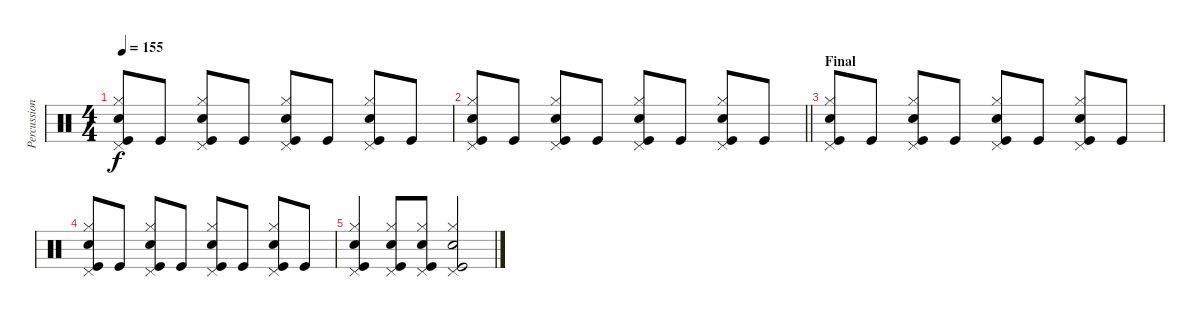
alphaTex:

\track ("Percussions" "Percussion") {instrument percussion}
\staff {score}
\articulation defaults
\ts (4 4)
\tempo 155
\clef neutral
\ks c
("Snare (hit) 2" "Hi-Hat (closed)" "Pedal Hi-Hat (hit)" "Kick (hit)").8{dy f} "Kick (hit)".8 ("Snare (hit) 2" "Hi-Hat (closed)" "Pedal Hi-Hat (hit)" "Kick (hit)").8 "Kick (hit)".8 ("Snare (hit) 2" "Hi-Hat (closed)" "Pedal Hi-Hat (hit)" "Kick (hit)").8 "Kick (hit)".8 ("Snare (hit) 2" "Hi-Hat (closed)" "Pedal Hi-Hat (hit)" "Kick (hit)").8 "Kick (hit)".8 |
\barLineRight lightlight
("Snare (hit) 2" "Hi-Hat (closed)" "Pedal Hi-Hat (hit)" "Kick (hit)").8 "Kick (hit)".8 ("Snare (hit) 2" "Hi-Hat (closed)" "Pedal Hi-Hat (hit)" "Kick (hit)").8 "Kick (hit)".8 ("Snare (hit) 2" "Hi-Hat (closed)" "Pedal Hi-Hat (hit)" "Kick (hit)").8 "Kick (hit)".8 ("Snare (hit) 2" "Hi-Hat (closed)" "Pedal Hi-Hat (hit)" "Kick (hit)").8 "Kick (hit)".8 |
\section ("" "Final")
("Snare (hit) 2" "Hi-Hat (closed)" "Pedal Hi-Hat (hit)" "Kick (hit)").8 "Kick (hit)".8 ("Snare (hit) 2" "Hi-Hat (closed)" "Pedal Hi-Hat (hit)" "Kick (hit)").8 "Kick (hit)".8 ("Snare (hit) 2" "Hi-Hat (closed)" "Pedal Hi-Hat (hit)" "Kick (hit)").8 "Kick (hit)".8 ("Snare (hit) 2" "Hi-Hat (closed)" "Pedal Hi-Hat (hit)" "Kick (hit)").8 "Kick (hit)".8 |
("Snare (hit) 2" "Hi-Hat (closed)" "Pedal Hi-Hat (hit)" "Kick (hit)").8 "Kick (hit)".8 ("Snare (hit) 2" "Hi-Hat (closed)" "Pedal Hi-Hat (hit)" "Kick (hit)").8 "Kick (hit)".8 ("Snare (hit) 2" "Hi-Hat (closed)" "Pedal Hi-Hat (hit)" "Kick (hit)").8 "Kick (hit)".8 ("Snare (hit) 2" "Hi-Hat (closed)" "Pedal Hi-Hat (hit)" "Kick (hit)").8 "Kick (hit)".8 |
("Snare (hit) 2" "Hi-Hat (closed)" "Pedal Hi-Hat (hit)" "Kick (hit)").4 ("Snare (hit) 2" "Hi-Hat (closed)" "Pedal Hi-Hat (hit)" "Kick (hit)").8 ("Snare (hit) 2" "Hi-Hat (closed)" "Pedal Hi-Hat (hit)" "Kick (hit)").8 ("Snare (hit) 2" "Hi-Hat (closed)" "Pedal Hi-Hat (hit)" "Kick (hit)").2
